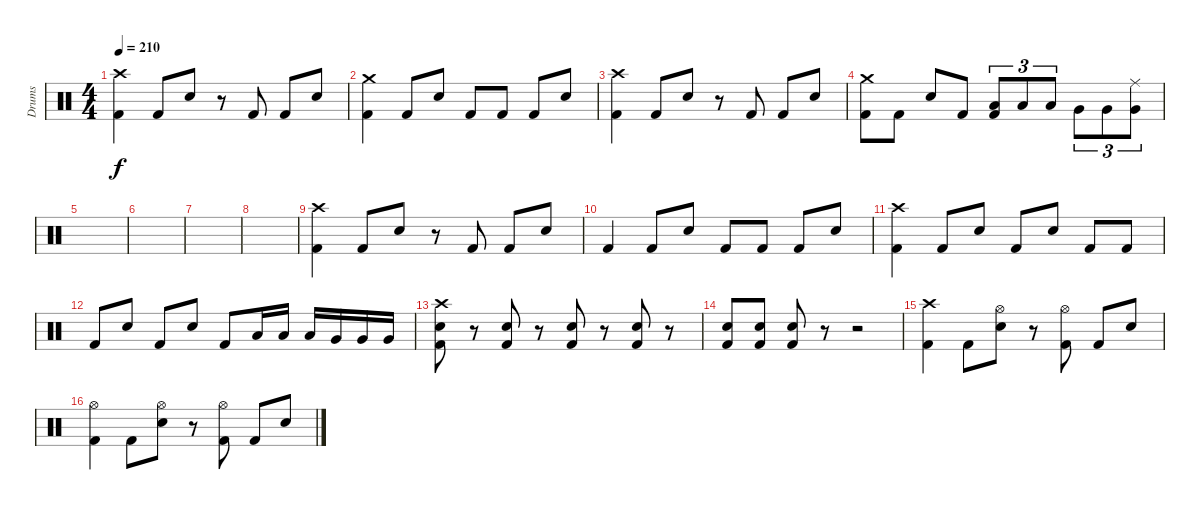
\track ("Drums" "Drums") {instrument percussion}
\staff {score}
\articulation defaults
\ts (4 4)
\tempo 210
\clef neutral
\ks c
("Crash high (hit)" "Kick (hit) 2").4{dy f} "Kick (hit) 2".8 "Snare (hit) 2".8 r.8 "Kick (hit) 2".8 "Kick (hit) 2".8 "Snare (hit) 2".8 |
("Crash medium (hit)" "Kick (hit) 2").4 "Kick (hit) 2".8 "Snare (hit) 2".8 "Kick (hit) 2".8 "Kick (hit) 2".8 "Kick (hit) 2".8 "Snare (hit) 2".8 |
("Crash high (hit)" "Kick (hit) 2").4 "Kick (hit) 2".8 "Snare (hit) 2".8 r.8 "Kick (hit) 2".8 "Kick (hit) 2".8 "Snare (hit) 2".8 |
("Crash medium (hit)" "Kick (hit) 2").8 "Kick (hit) 2".8 "Snare (hit) 2".8 "Kick (hit) 2".8 ("Low Tom (hit)" "Kick (hit) 2").8{tu (3 2)} "Low Tom (hit)".8{tu (3 2)} "Low Tom (hit)".8{tu (3 2)} "Very Low Tom (hit)".8{tu (3 2)} "Very Low Tom (hit)".8{tu (3 2)} ("Ride (middle)" "Very Low Tom (hit)").8{tu (3 2)} |
|
|
|
|
("Crash high (hit)" "Kick (hit) 2").4 "Kick (hit) 2".8 "Snare (hit) 2".8 r.8 "Kick (hit) 2".8 "Kick (hit) 2".8 "Snare (hit) 2".8 |
"Kick (hit) 2".4 "Kick (hit) 2".8 "Snare (hit) 2".8 "Kick (hit) 2".8 "Kick (hit) 2".8 "Kick (hit) 2".8 "Snare (hit) 2".8 |
("Crash high (hit)" "Kick (hit) 2").4 "Kick (hit) 2".8 "Snare (hit) 2".8 "Kick (hit) 2".8 "Snare (hit) 2".8 "Kick (hit) 2".8 "Kick (hit) 2".8 |
"Kick (hit) 2".8 "Snare (hit) 2".8 "Kick (hit) 2".8 "Snare (hit) 2".8 "Kick (hit) 2".8 "Low Tom (hit)".16 "Low Tom (hit)".16 "Low Tom (hit)".16 "Very Low Tom (hit)".16 "Very Low Tom (hit)".16 "Very Low Tom (hit)".16 |
("Crash high (hit)" "Snare (hit) 2" "Kick (hit) 2").8 r.8 ("Snare (hit) 2" "Kick (hit) 2").8 r.8 ("Snare (hit) 2" "Kick (hit) 2").8 r.8 ("Snare (hit) 2" "Kick (hit) 2").8 r.8 |
("Snare (hit) 2" "Kick (hit) 2").8 ("Snare (hit) 2" "Kick (hit) 2").8 ("Snare (hit) 2" "Kick (hit) 2").8 r.8 r.2 |
("Crash high (hit)" "Kick (hit) 2").4 "Kick (hit) 2".8 ("Hi-Hat (open)" "Snare (hit) 2").8 r.8 ("Hi-Hat (open)" "Kick (hit) 2").8 "Kick (hit) 2".8 "Snare (hit) 2".8 |
("Hi-Hat (open)" "Kick (hit) 2").4 "Kick (hit) 2".8 ("Hi-Hat (open)" "Snare (hit) 2").8 r.8 ("Hi-Hat (open)" "Kick (hit) 2").8 "Kick (hit) 2".8 "Snare (hit) 2".8
